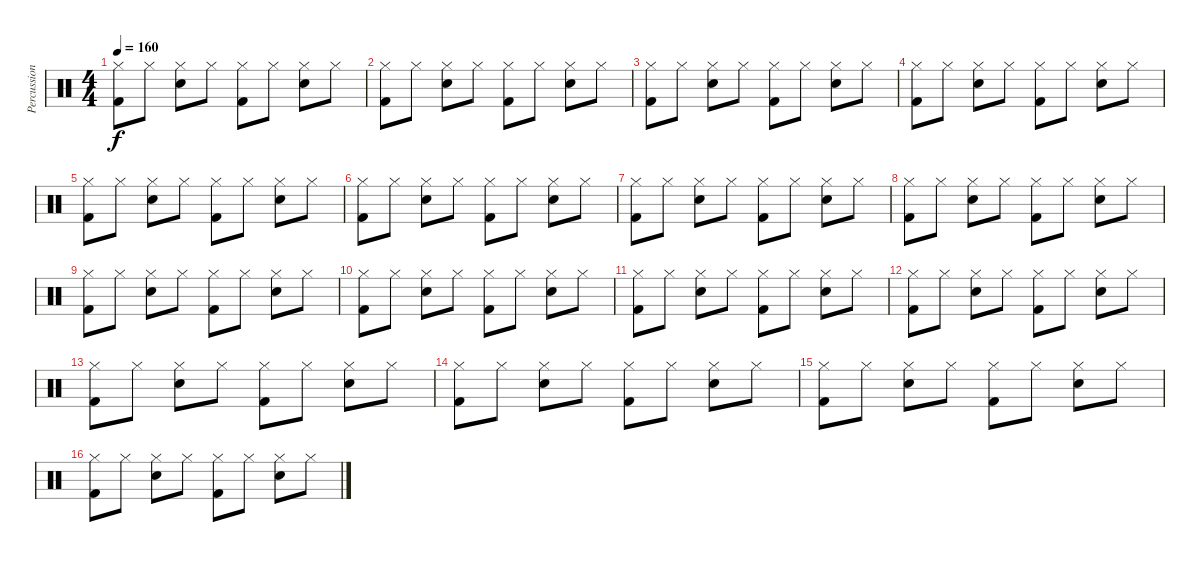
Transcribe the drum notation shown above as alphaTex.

\track ("Percussion" "Percussion") {instrument percussion}
\staff {score}
\articulation defaults
\ts (4 4)
\tempo 160
\clef neutral
\ks c
("Hi-Hat (closed)" "Kick (hit) 2").8{dy f} "Hi-Hat (closed)".8 ("Hi-Hat (closed)" "Snare (hit) 2").8 "Hi-Hat (closed)".8 ("Hi-Hat (closed)" "Kick (hit) 2").8 "Hi-Hat (closed)".8 ("Hi-Hat (closed)" "Snare (hit) 2").8 "Hi-Hat (closed)".8 |
("Hi-Hat (closed)" "Kick (hit) 2").8 "Hi-Hat (closed)".8 ("Hi-Hat (closed)" "Snare (hit) 2").8 "Hi-Hat (closed)".8 ("Hi-Hat (closed)" "Kick (hit) 2").8 "Hi-Hat (closed)".8 ("Hi-Hat (closed)" "Snare (hit) 2").8 "Hi-Hat (closed)".8 |
("Hi-Hat (closed)" "Kick (hit) 2").8 "Hi-Hat (closed)".8 ("Hi-Hat (closed)" "Snare (hit) 2").8 "Hi-Hat (closed)".8 ("Hi-Hat (closed)" "Kick (hit) 2").8 "Hi-Hat (closed)".8 ("Hi-Hat (closed)" "Snare (hit) 2").8 "Hi-Hat (closed)".8 |
("Hi-Hat (closed)" "Kick (hit) 2").8 "Hi-Hat (closed)".8 ("Hi-Hat (closed)" "Snare (hit) 2").8 "Hi-Hat (closed)".8 ("Hi-Hat (closed)" "Kick (hit) 2").8 "Hi-Hat (closed)".8 ("Hi-Hat (closed)" "Snare (hit) 2").8 "Hi-Hat (closed)".8 |
("Hi-Hat (closed)" "Kick (hit) 2").8 "Hi-Hat (closed)".8 ("Hi-Hat (closed)" "Snare (hit) 2").8 "Hi-Hat (closed)".8 ("Hi-Hat (closed)" "Kick (hit) 2").8 "Hi-Hat (closed)".8 ("Hi-Hat (closed)" "Snare (hit) 2").8 "Hi-Hat (closed)".8 |
("Hi-Hat (closed)" "Kick (hit) 2").8 "Hi-Hat (closed)".8 ("Hi-Hat (closed)" "Snare (hit) 2").8 "Hi-Hat (closed)".8 ("Hi-Hat (closed)" "Kick (hit) 2").8 "Hi-Hat (closed)".8 ("Hi-Hat (closed)" "Snare (hit) 2").8 "Hi-Hat (closed)".8 |
("Hi-Hat (closed)" "Kick (hit) 2").8 "Hi-Hat (closed)".8 ("Hi-Hat (closed)" "Snare (hit) 2").8 "Hi-Hat (closed)".8 ("Hi-Hat (closed)" "Kick (hit) 2").8 "Hi-Hat (closed)".8 ("Hi-Hat (closed)" "Snare (hit) 2").8 "Hi-Hat (closed)".8 |
("Hi-Hat (closed)" "Kick (hit) 2").8 "Hi-Hat (closed)".8 ("Hi-Hat (closed)" "Snare (hit) 2").8 "Hi-Hat (closed)".8 ("Hi-Hat (closed)" "Kick (hit) 2").8 "Hi-Hat (closed)".8 ("Hi-Hat (closed)" "Snare (hit) 2").8 "Hi-Hat (closed)".8 |
("Hi-Hat (closed)" "Kick (hit) 2").8 "Hi-Hat (closed)".8 ("Hi-Hat (closed)" "Snare (hit) 2").8 "Hi-Hat (closed)".8 ("Hi-Hat (closed)" "Kick (hit) 2").8 "Hi-Hat (closed)".8 ("Hi-Hat (closed)" "Snare (hit) 2").8 "Hi-Hat (closed)".8 |
("Hi-Hat (closed)" "Kick (hit) 2").8 "Hi-Hat (closed)".8 ("Hi-Hat (closed)" "Snare (hit) 2").8 "Hi-Hat (closed)".8 ("Hi-Hat (closed)" "Kick (hit) 2").8 "Hi-Hat (closed)".8 ("Hi-Hat (closed)" "Snare (hit) 2").8 "Hi-Hat (closed)".8 |
("Hi-Hat (closed)" "Kick (hit) 2").8 "Hi-Hat (closed)".8 ("Hi-Hat (closed)" "Snare (hit) 2").8 "Hi-Hat (closed)".8 ("Hi-Hat (closed)" "Kick (hit) 2").8 "Hi-Hat (closed)".8 ("Hi-Hat (closed)" "Snare (hit) 2").8 "Hi-Hat (closed)".8 |
("Hi-Hat (closed)" "Kick (hit) 2").8 "Hi-Hat (closed)".8 ("Hi-Hat (closed)" "Snare (hit) 2").8 "Hi-Hat (closed)".8 ("Hi-Hat (closed)" "Kick (hit) 2").8 "Hi-Hat (closed)".8 ("Hi-Hat (closed)" "Snare (hit) 2").8 "Hi-Hat (closed)".8 |
("Hi-Hat (closed)" "Kick (hit) 2").8 "Hi-Hat (closed)".8 ("Hi-Hat (closed)" "Snare (hit) 2").8 "Hi-Hat (closed)".8 ("Hi-Hat (closed)" "Kick (hit) 2").8 "Hi-Hat (closed)".8 ("Hi-Hat (closed)" "Snare (hit) 2").8 "Hi-Hat (closed)".8 |
("Hi-Hat (closed)" "Kick (hit) 2").8 "Hi-Hat (closed)".8 ("Hi-Hat (closed)" "Snare (hit) 2").8 "Hi-Hat (closed)".8 ("Hi-Hat (closed)" "Kick (hit) 2").8 "Hi-Hat (closed)".8 ("Hi-Hat (closed)" "Snare (hit) 2").8 "Hi-Hat (closed)".8 |
("Hi-Hat (closed)" "Kick (hit) 2").8 "Hi-Hat (closed)".8 ("Hi-Hat (closed)" "Snare (hit) 2").8 "Hi-Hat (closed)".8 ("Hi-Hat (closed)" "Kick (hit) 2").8 "Hi-Hat (closed)".8 ("Hi-Hat (closed)" "Snare (hit) 2").8 "Hi-Hat (closed)".8 |
("Hi-Hat (closed)" "Kick (hit) 2").8 "Hi-Hat (closed)".8 ("Hi-Hat (closed)" "Snare (hit) 2").8 "Hi-Hat (closed)".8 ("Hi-Hat (closed)" "Kick (hit) 2").8 "Hi-Hat (closed)".8 ("Hi-Hat (closed)" "Snare (hit) 2").8 "Hi-Hat (closed)".8
